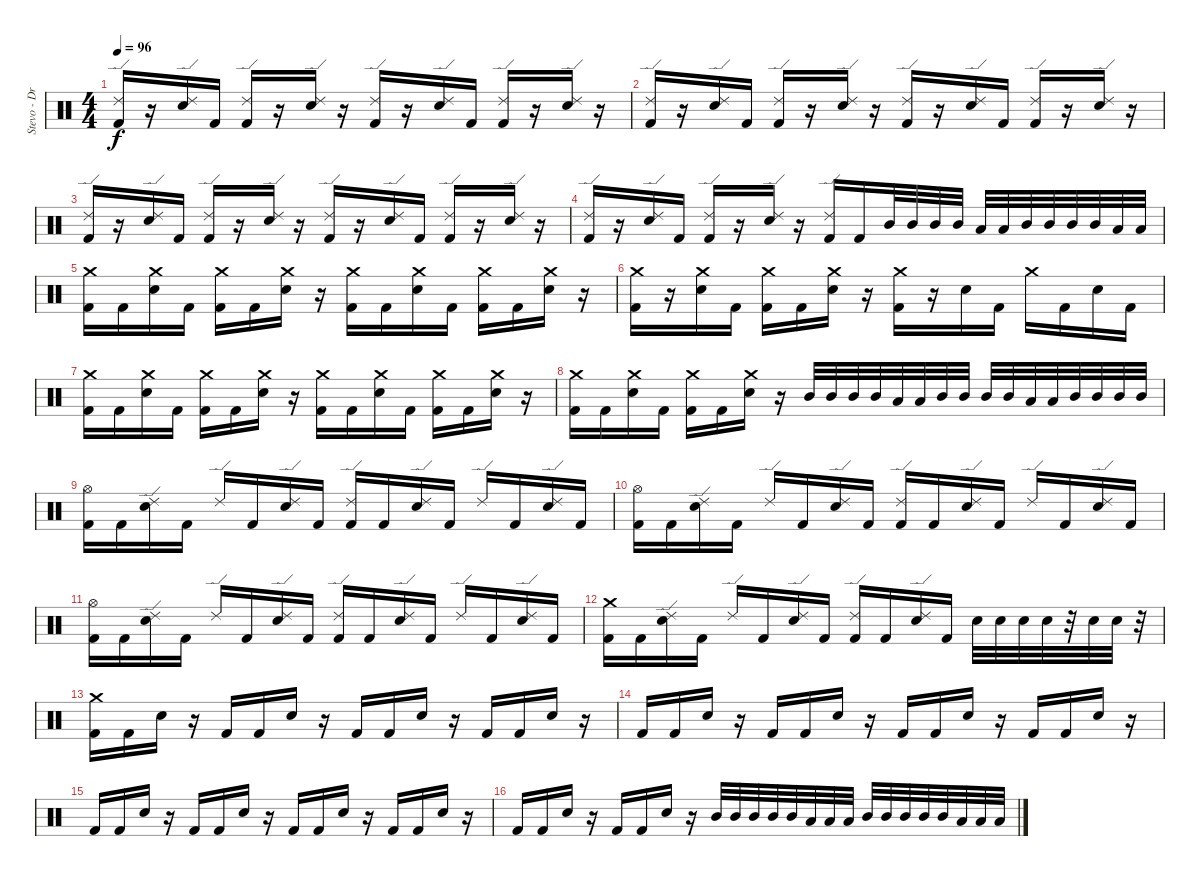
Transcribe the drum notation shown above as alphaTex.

\track ("Stevo - Drums" "Stevo - Dr") {instrument percussion}
\staff {score}
\articulation defaults
\ts (4 4)
\tempo 96
\clef neutral
\ks c
("Ride (edge) 2" "Kick (hit) 2").16{dy f} r.16 ("Ride (edge) 2" "Electric Snare (hit)").16 "Kick (hit) 2".16 ("Ride (edge) 2" "Kick (hit) 2").16 r.16 ("Ride (edge) 2" "Electric Snare (hit)").16 r.16 ("Ride (edge) 2" "Kick (hit) 2").16 r.16 ("Ride (edge) 2" "Electric Snare (hit)").16 "Kick (hit) 2".16 ("Ride (edge) 2" "Kick (hit) 2").16 r.16 ("Ride (edge) 2" "Electric Snare (hit)").16 r.16 |
("Ride (edge) 2" "Kick (hit) 2").16 r.16 ("Ride (edge) 2" "Electric Snare (hit)").16 "Kick (hit) 2".16 ("Ride (edge) 2" "Kick (hit) 2").16 r.16 ("Ride (edge) 2" "Electric Snare (hit)").16 r.16 ("Ride (edge) 2" "Kick (hit) 2").16 r.16 ("Ride (edge) 2" "Electric Snare (hit)").16 "Kick (hit) 2".16 ("Ride (edge) 2" "Kick (hit) 2").16 r.16 ("Ride (edge) 2" "Electric Snare (hit)").16 r.16 |
("Ride (edge) 2" "Kick (hit) 2").16 r.16 ("Ride (edge) 2" "Electric Snare (hit)").16 "Kick (hit) 2".16 ("Ride (edge) 2" "Kick (hit) 2").16 r.16 ("Ride (edge) 2" "Electric Snare (hit)").16 r.16 ("Ride (edge) 2" "Kick (hit) 2").16 r.16 ("Ride (edge) 2" "Electric Snare (hit)").16 "Kick (hit) 2".16 ("Ride (edge) 2" "Kick (hit) 2").16 r.16 ("Ride (edge) 2" "Electric Snare (hit)").16 r.16 |
("Ride (edge) 2" "Kick (hit) 2").16 r.16 ("Ride (edge) 2" "Electric Snare (hit)").16 "Kick (hit) 2".16 ("Ride (edge) 2" "Kick (hit) 2").16 r.16 ("Ride (edge) 2" "Electric Snare (hit)").16 r.16 ("Ride (edge) 2" "Kick (hit) 2").16 "Kick (hit) 2".16 "Mid Tom (hit)".32 "Mid Tom (hit)".32 "Mid Tom (hit)".32 "Mid Tom (hit)".32 "Low Tom (hit)".32 "Low Tom (hit)".32 "Mid Tom (hit)".32 "Mid Tom (hit)".32 "Mid Tom (hit)".32 "Mid Tom (hit)".32 "Low Tom (hit)".32 "Low Tom (hit)".32 |
("Crash medium (hit)" "Kick (hit) 2").16 "Kick (hit) 2".16 ("Crash medium (hit)" "Electric Snare (hit)").16 "Kick (hit) 2".16 ("Crash medium (hit)" "Kick (hit) 2").16 "Kick (hit) 2".16 ("Crash medium (hit)" "Electric Snare (hit)").16 r.16 ("Crash medium (hit)" "Kick (hit) 2").16 "Kick (hit) 2".16 ("Crash medium (hit)" "Electric Snare (hit)").16 "Kick (hit) 2".16 ("Crash medium (hit)" "Kick (hit) 2").16 "Kick (hit) 2".16 ("Crash medium (hit)" "Electric Snare (hit)").16 r.16 |
("Crash medium (hit)" "Kick (hit) 2").16 r.16 ("Crash medium (hit)" "Electric Snare (hit)").16 "Kick (hit) 2".16 ("Crash medium (hit)" "Kick (hit) 2").16 "Kick (hit) 2".16 ("Crash medium (hit)" "Electric Snare (hit)").16 r.16 ("Crash medium (hit)" "Kick (hit) 2").16 r.16 "Electric Snare (hit)".16 "Kick (hit) 2".16 "Crash medium (hit)".16 "Kick (hit) 2".16 "Electric Snare (hit)".16 "Kick (hit) 2".16 |
("Crash medium (hit)" "Kick (hit) 2").16 "Kick (hit) 2".16 ("Crash medium (hit)" "Electric Snare (hit)").16 "Kick (hit) 2".16 ("Crash medium (hit)" "Kick (hit) 2").16 "Kick (hit) 2".16 ("Crash medium (hit)" "Electric Snare (hit)").16 r.16 ("Crash medium (hit)" "Kick (hit) 2").16 "Kick (hit) 2".16 ("Crash medium (hit)" "Electric Snare (hit)").16 "Kick (hit) 2".16 ("Crash medium (hit)" "Kick (hit) 2").16 "Kick (hit) 2".16 ("Crash medium (hit)" "Electric Snare (hit)").16 r.16 |
("Crash medium (hit)" "Kick (hit) 2").16 "Kick (hit) 2".16 ("Crash medium (hit)" "Electric Snare (hit)").16 "Kick (hit) 2".16 ("Crash medium (hit)" "Kick (hit) 2").16 "Kick (hit) 2".16 ("Crash medium (hit)" "Electric Snare (hit)").16 r.16 "Mid Tom (hit)".32 "Mid Tom (hit)".32 "Mid Tom (hit)".32 "Mid Tom (hit)".32 "Low Tom (hit)".32 "Low Tom (hit)".32 "Mid Tom (hit)".32 "Mid Tom (hit)".32 "Mid Tom (hit)".32 "Mid Tom (hit)".32 "Low Tom (hit)".32 "Low Tom (hit)".32 "Mid Tom (hit)".32 "Mid Tom (hit)".32 "Mid Tom (hit)".32 "Mid Tom (hit)".32 |
("Hi-Hat (open)" "Kick (hit) 2").16 "Kick (hit) 2".16 ("Ride (edge) 2" "Electric Snare (hit)").16 "Kick (hit) 2".16 "Ride (edge) 2".16 "Kick (hit) 2".16 ("Ride (edge) 2" "Electric Snare (hit)").16 "Kick (hit) 2".16 ("Ride (edge) 2" "Kick (hit) 2").16 "Kick (hit) 2".16 ("Ride (edge) 2" "Electric Snare (hit)").16 "Kick (hit) 2".16 "Ride (edge) 2".16 "Kick (hit) 2".16 ("Ride (edge) 2" "Electric Snare (hit)").16 "Kick (hit) 2".16 |
("Hi-Hat (open)" "Kick (hit) 2").16 "Kick (hit) 2".16 ("Ride (edge) 2" "Electric Snare (hit)").16 "Kick (hit) 2".16 "Ride (edge) 2".16 "Kick (hit) 2".16 ("Ride (edge) 2" "Electric Snare (hit)").16 "Kick (hit) 2".16 ("Ride (edge) 2" "Kick (hit) 2").16 "Kick (hit) 2".16 ("Ride (edge) 2" "Electric Snare (hit)").16 "Kick (hit) 2".16 "Ride (edge) 2".16 "Kick (hit) 2".16 ("Ride (edge) 2" "Electric Snare (hit)").16 "Kick (hit) 2".16 |
("Hi-Hat (open)" "Kick (hit) 2").16 "Kick (hit) 2".16 ("Ride (edge) 2" "Electric Snare (hit)").16 "Kick (hit) 2".16 "Ride (edge) 2".16 "Kick (hit) 2".16 ("Ride (edge) 2" "Electric Snare (hit)").16 "Kick (hit) 2".16 ("Ride (edge) 2" "Kick (hit) 2").16 "Kick (hit) 2".16 ("Ride (edge) 2" "Electric Snare (hit)").16 "Kick (hit) 2".16 "Ride (edge) 2".16 "Kick (hit) 2".16 ("Ride (edge) 2" "Electric Snare (hit)").16 "Kick (hit) 2".16 |
("Crash medium (hit)" "Kick (hit) 2").16 "Kick (hit) 2".16 ("Ride (edge) 2" "Electric Snare (hit)").16 "Kick (hit) 2".16 "Ride (edge) 2".16 "Kick (hit) 2".16 ("Ride (edge) 2" "Electric Snare (hit)").16 "Kick (hit) 2".16 ("Ride (edge) 2" "Kick (hit) 2").16 "Kick (hit) 2".16 ("Ride (edge) 2" "Electric Snare (hit)").16 "Kick (hit) 2".16 "Electric Snare (hit)".32 "Electric Snare (hit)".32 "Electric Snare (hit)".32 "Electric Snare (hit)".32 r.32 "Electric Snare (hit)".32 "Electric Snare (hit)".32 r.32 |
("Crash medium (hit)" "Kick (hit) 2").16 "Kick (hit) 2".16 "Electric Snare (hit)".16 r.16 "Kick (hit) 2".16 "Kick (hit) 2".16 "Electric Snare (hit)".16 r.16 "Kick (hit) 2".16 "Kick (hit) 2".16 "Electric Snare (hit)".16 r.16 "Kick (hit) 2".16 "Kick (hit) 2".16 "Electric Snare (hit)".16 r.16 |
"Kick (hit) 2".16 "Kick (hit) 2".16 "Electric Snare (hit)".16 r.16 "Kick (hit) 2".16 "Kick (hit) 2".16 "Electric Snare (hit)".16 r.16 "Kick (hit) 2".16 "Kick (hit) 2".16 "Electric Snare (hit)".16 r.16 "Kick (hit) 2".16 "Kick (hit) 2".16 "Electric Snare (hit)".16 r.16 |
"Kick (hit) 2".16 "Kick (hit) 2".16 "Electric Snare (hit)".16 r.16 "Kick (hit) 2".16 "Kick (hit) 2".16 "Electric Snare (hit)".16 r.16 "Kick (hit) 2".16 "Kick (hit) 2".16 "Electric Snare (hit)".16 r.16 "Kick (hit) 2".16 "Kick (hit) 2".16 "Electric Snare (hit)".16 r.16 |
"Kick (hit) 2".16 "Kick (hit) 2".16 "Electric Snare (hit)".16 r.16 "Kick (hit) 2".16 "Kick (hit) 2".16 "Electric Snare (hit)".16 r.16 "Mid Tom (hit)".32 "Mid Tom (hit)".32 "Mid Tom (hit)".32 "Mid Tom (hit)".32 "Mid Tom (hit)".32 "Low Floor Tom (hit)".32 "Low Floor Tom (hit)".32 "Low Floor Tom (hit)".32 "Mid Tom (hit)".32 "Mid Tom (hit)".32 "Mid Tom (hit)".32 "Mid Tom (hit)".32 "Mid Tom (hit)".32 "Low Floor Tom (hit)".32 "Low Floor Tom (hit)".32 "Low Floor Tom (hit)".32
